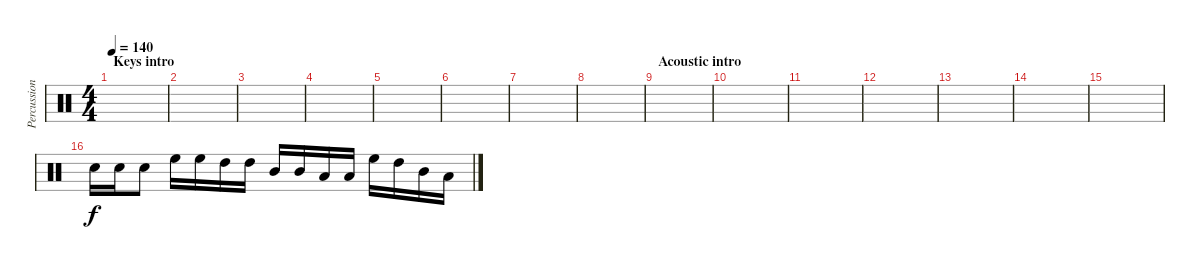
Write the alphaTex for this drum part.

\track ("Percussion" "Percussion") {instrument percussion}
\staff {score}
\articulation defaults
\ts (4 4)
\section ("" "Keys intro")
\tempo 140
\clef neutral
\ks c
|
|
|
|
|
|
|
|
\section ("" "Acoustic intro")
|
|
|
|
|
|
|
"Electric Snare (hit)".16 "Electric Snare (hit)".16 "Electric Snare (hit)".8 "High Floor Tom (hit)".16 "High Floor Tom (hit)".16 "High Tom (hit)".16 "High Tom (hit)".16 "Mid Tom (hit)".16 "Mid Tom (hit)".16 "Low Tom (hit)".16 "Low Tom (hit)".16 "High Floor Tom (hit)".16 "High Tom (hit)".16 "Mid Tom (hit)".16 "Low Tom (hit)".16
